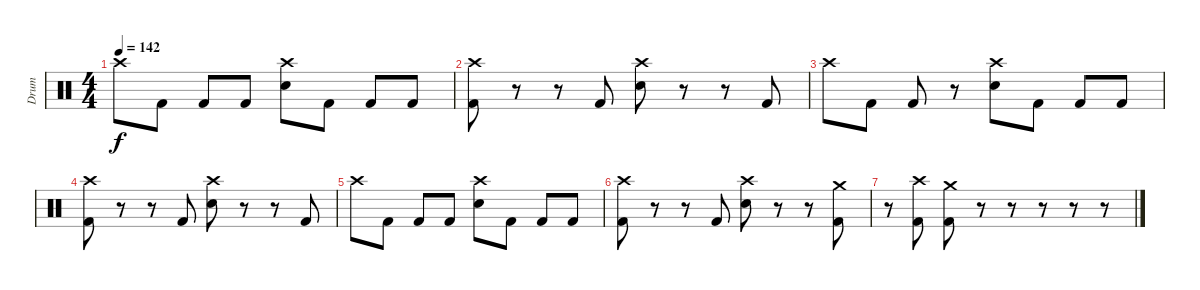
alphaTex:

\track ("Drum" "Drum") {instrument percussion}
\staff {score}
\articulation defaults
\ts (4 4)
\tempo 142
\clef neutral
\ks c "Crash high (hit)".8{dy f} "Kick (hit) 2".8 "Kick (hit) 2".8 "Kick (hit) 2".8
("Crash high (hit)" "Electric Snare (hit)").8 "Kick (hit) 2".8 "Kick (hit) 2".8 "Kick (hit) 2".8 |
("Crash high (hit)" "Kick (hit) 2").8 r.8 r.8 "Kick (hit) 2".8 ("Crash high (hit)" "Electric Snare (hit)").8 r.8 r.8 "Kick (hit) 2".8 |
"Crash high (hit)".8 "Kick (hit) 2".8 "Kick (hit) 2".8 r.8 ("Crash high (hit)" "Electric Snare (hit)").8 "Kick (hit) 2".8 "Kick (hit) 2".8 "Kick (hit) 2".8 |
("Crash high (hit)" "Kick (hit) 2").8 r.8 r.8 "Kick (hit) 2".8 ("Crash high (hit)" "Electric Snare (hit)").8 r.8 r.8 "Kick (hit) 2".8 |
"Crash high (hit)".8 "Kick (hit) 2".8 "Kick (hit) 2".8 "Kick (hit) 2".8 ("Crash high (hit)" "Electric Snare (hit)").8 "Kick (hit) 2".8 "Kick (hit) 2".8 "Kick (hit) 2".8 |
("Crash high (hit)" "Kick (hit) 2").8 r.8 r.8 "Kick (hit) 2".8 ("Crash high (hit)" "Electric Snare (hit)").8 r.8 r.8 ("Crash medium (hit)" "Kick (hit) 2").8 |
r.8 ("Crash high (hit)" "Kick (hit) 2").8 ("Crash medium (hit)" "Kick (hit) 2").8 r.8 r.8 r.8 r.8 r.8
